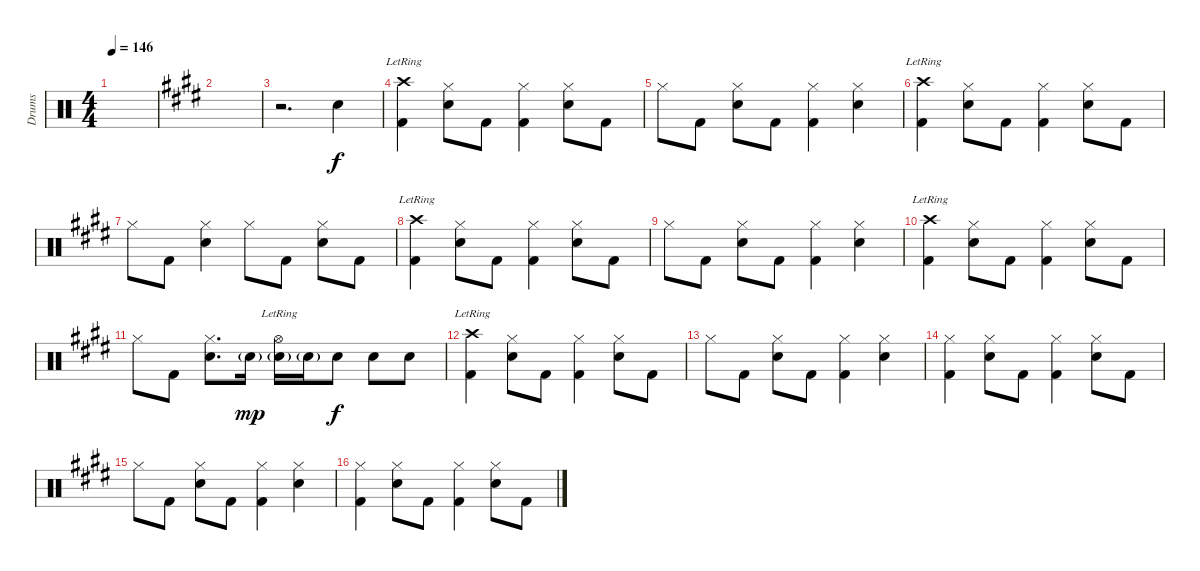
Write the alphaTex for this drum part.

\track ("Drums" "Drums") {instrument percussion}
\staff {score}
\articulation defaults
\ts (4 4)
\tempo 146
\clef neutral
\ks c
|
\ks e
|
r.2{d} "Snare (hit) 2".4 |
("Kick (hit) 2" "Crash high (hit)"{lr}).4 ("Snare (hit) 2" "Hi-Hat (closed)").8 "Kick (hit) 2".8 ("Kick (hit) 2" "Hi-Hat (closed)").4 ("Snare (hit) 2" "Hi-Hat (closed)").8 "Kick (hit) 2".8 |
"Hi-Hat (closed)".8 "Kick (hit) 2".8 ("Snare (hit) 2" "Hi-Hat (closed)").8 "Kick (hit) 2".8 ("Kick (hit) 2" "Hi-Hat (closed)").4 ("Snare (hit) 2" "Hi-Hat (closed)").4 |
("Kick (hit) 2" "Crash high (hit)"{lr}).4 ("Snare (hit) 2" "Hi-Hat (closed)").8 "Kick (hit) 2".8 ("Kick (hit) 2" "Hi-Hat (closed)").4 ("Snare (hit) 2" "Hi-Hat (closed)").8 "Kick (hit) 2".8 |
"Hi-Hat (closed)".8 "Kick (hit) 2".8 ("Snare (hit) 2" "Hi-Hat (closed)").4 "Hi-Hat (closed)".8 "Kick (hit) 2".8 ("Snare (hit) 2" "Hi-Hat (closed)").8 "Kick (hit) 2".8 |
("Kick (hit) 2" "Crash high (hit)"{lr}).4 ("Snare (hit) 2" "Hi-Hat (closed)").8 "Kick (hit) 2".8 ("Kick (hit) 2" "Hi-Hat (closed)").4 ("Snare (hit) 2" "Hi-Hat (closed)").8 "Kick (hit) 2".8 |
"Hi-Hat (closed)".8 "Kick (hit) 2".8 ("Snare (hit) 2" "Hi-Hat (closed)").8 "Kick (hit) 2".8 ("Kick (hit) 2" "Hi-Hat (closed)").4 ("Snare (hit) 2" "Hi-Hat (closed)").4 |
("Kick (hit) 2" "Crash high (hit)"{lr}).4 ("Snare (hit) 2" "Hi-Hat (closed)").8 "Kick (hit) 2".8 ("Kick (hit) 2" "Hi-Hat (closed)").4 ("Snare (hit) 2" "Hi-Hat (closed)").8 "Kick (hit) 2".8 |
"Hi-Hat (closed)".8 "Kick (hit) 2".8 ("Snare (hit) 2" "Hi-Hat (closed)").8{d} "Snare (hit) 2"{g}.16{dy mp} ("Snare (hit) 2"{g} "Hi-Hat (open)"{lr}).16 "Snare (hit) 2"{g}.16 "Snare (hit) 2".8{dy f} "Snare (hit) 2".8 "Snare (hit) 2".8 |
("Kick (hit) 2" "Crash high (hit)"{lr}).4 ("Snare (hit) 2" "Hi-Hat (closed)").8 "Kick (hit) 2".8 ("Kick (hit) 2" "Hi-Hat (closed)").4 ("Snare (hit) 2" "Hi-Hat (closed)").8 "Kick (hit) 2".8 |
"Hi-Hat (closed)".8 "Kick (hit) 2".8 ("Snare (hit) 2" "Hi-Hat (closed)").8 "Kick (hit) 2".8 ("Kick (hit) 2" "Hi-Hat (closed)").4 ("Snare (hit) 2" "Hi-Hat (closed)").4 |
("Kick (hit) 2" "Hi-Hat (closed)").4 ("Snare (hit) 2" "Hi-Hat (closed)").8 "Kick (hit) 2".8 ("Kick (hit) 2" "Hi-Hat (closed)").4 ("Snare (hit) 2" "Hi-Hat (closed)").8 "Kick (hit) 2".8 |
"Hi-Hat (closed)".8 "Kick (hit) 2".8 ("Snare (hit) 2" "Hi-Hat (closed)").8 "Kick (hit) 2".8 ("Kick (hit) 2" "Hi-Hat (closed)").4 ("Snare (hit) 2" "Hi-Hat (closed)").4 |
("Kick (hit) 2" "Hi-Hat (closed)").4 ("Snare (hit) 2" "Hi-Hat (closed)").8 "Kick (hit) 2".8 ("Kick (hit) 2" "Hi-Hat (closed)").4 ("Snare (hit) 2" "Hi-Hat (closed)").8 "Kick (hit) 2".8
